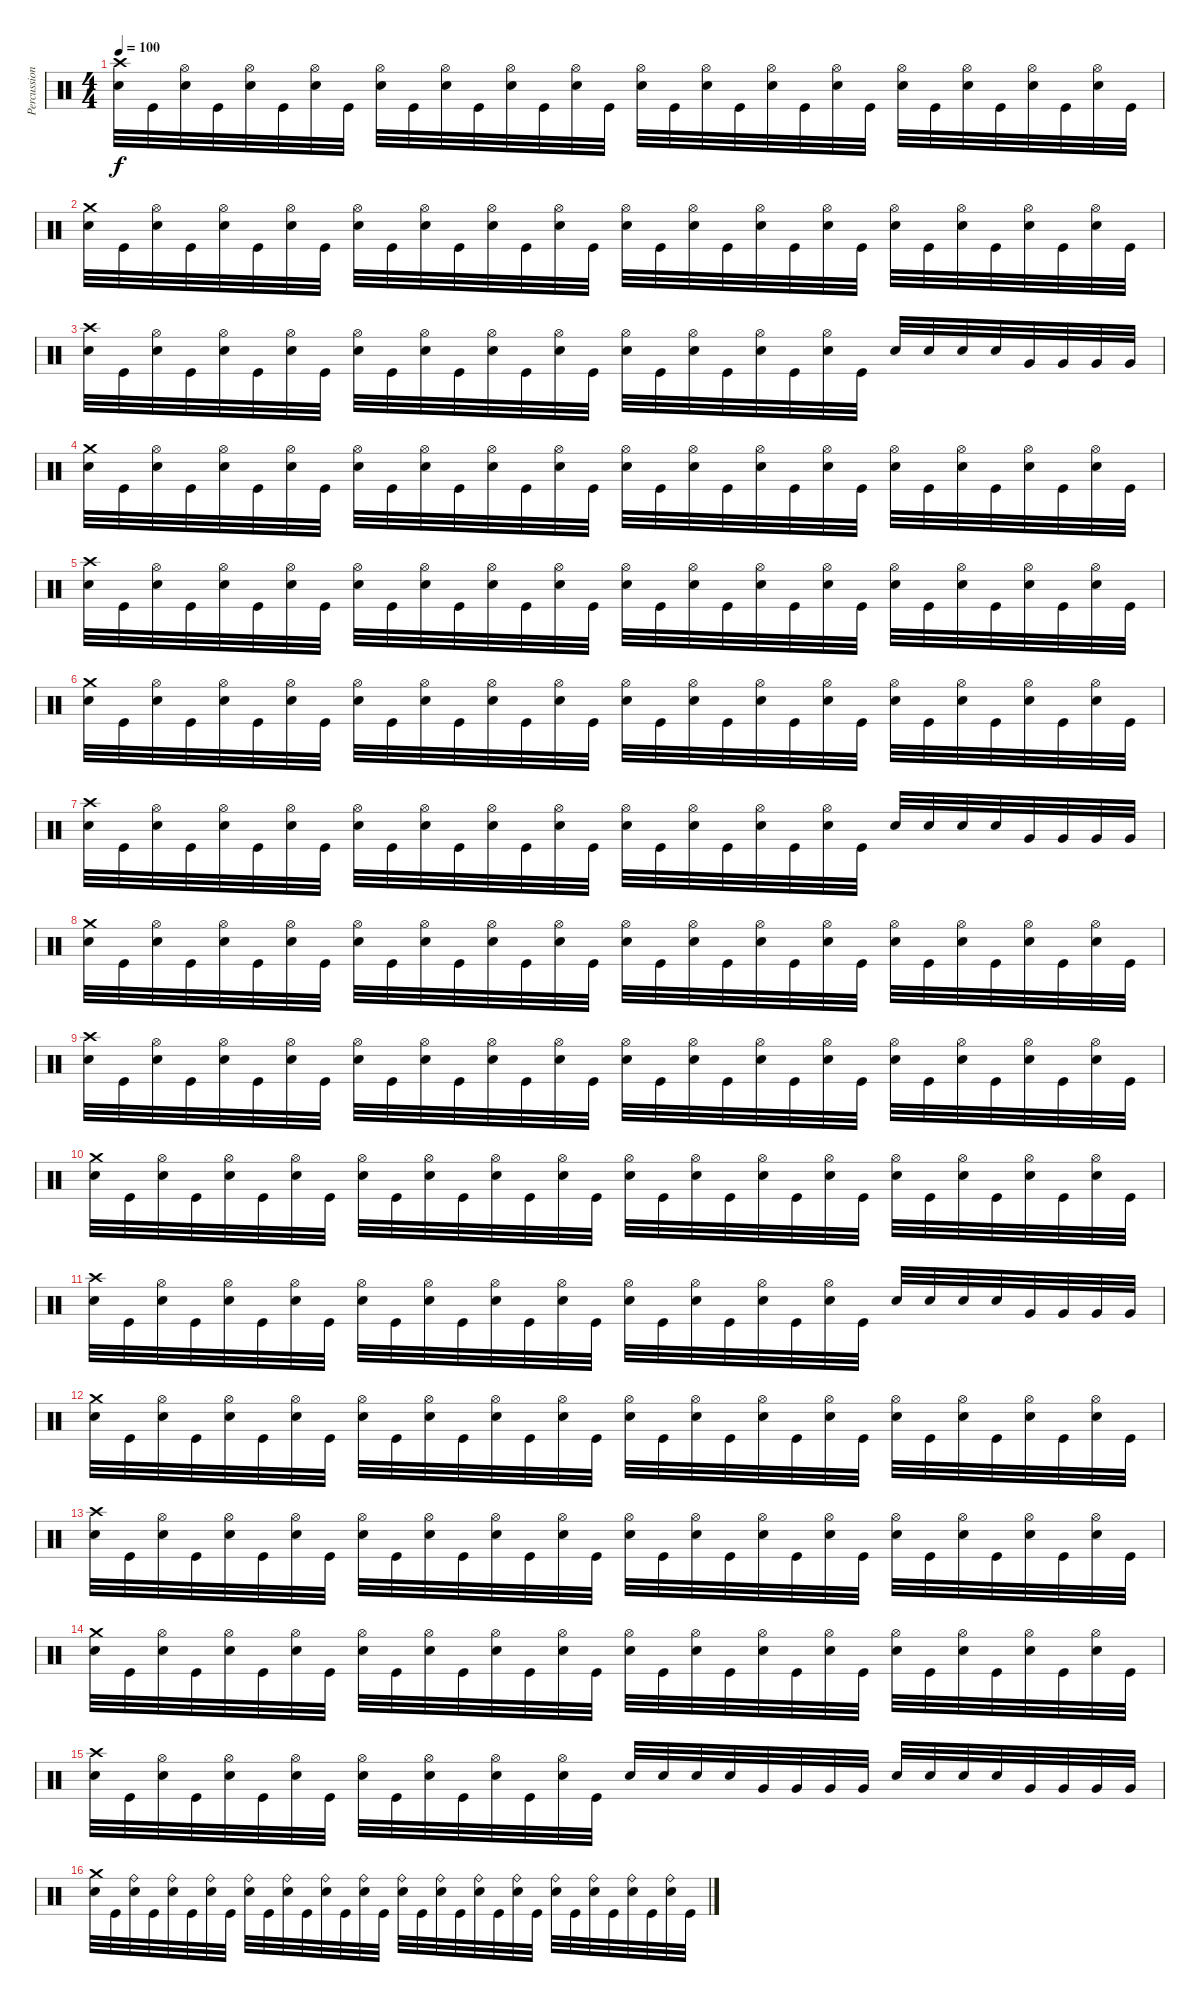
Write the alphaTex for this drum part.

\track ("Percussion" "Percussion") {instrument percussion}
\staff {score}
\articulation defaults
\ts (4 4)
\tempo 100
\clef neutral
\ks c
("Crash high (hit)" "Electric Snare (hit)").32{dy f} "Kick (hit)".32 ("Hi-Hat (open)" "Electric Snare (hit)").32 "Kick (hit)".32 ("Hi-Hat (open)" "Electric Snare (hit)").32 "Kick (hit)".32 ("Hi-Hat (open)" "Electric Snare (hit)").32 "Kick (hit)".32 ("Hi-Hat (open)" "Electric Snare (hit)").32 "Kick (hit)".32 ("Hi-Hat (open)" "Electric Snare (hit)").32 "Kick (hit)".32 ("Hi-Hat (open)" "Electric Snare (hit)").32 "Kick (hit)".32 ("Hi-Hat (open)" "Electric Snare (hit)").32 "Kick (hit)".32 ("Hi-Hat (open)" "Electric Snare (hit)").32 "Kick (hit)".32 ("Hi-Hat (open)" "Electric Snare (hit)").32 "Kick (hit)".32 ("Hi-Hat (open)" "Electric Snare (hit)").32 "Kick (hit)".32 ("Hi-Hat (open)" "Electric Snare (hit)").32 "Kick (hit)".32 ("Hi-Hat (open)" "Electric Snare (hit)").32 "Kick (hit)".32 ("Hi-Hat (open)" "Electric Snare (hit)").32 "Kick (hit)".32 ("Hi-Hat (open)" "Electric Snare (hit)").32 "Kick (hit)".32 ("Hi-Hat (open)" "Electric Snare (hit)").32 "Kick (hit)".32 |
("Crash medium (hit)" "Electric Snare (hit)").32 "Kick (hit)".32 ("Hi-Hat (open)" "Electric Snare (hit)").32 "Kick (hit)".32 ("Hi-Hat (open)" "Electric Snare (hit)").32 "Kick (hit)".32 ("Hi-Hat (open)" "Electric Snare (hit)").32 "Kick (hit)".32 ("Hi-Hat (open)" "Electric Snare (hit)").32 "Kick (hit)".32 ("Hi-Hat (open)" "Electric Snare (hit)").32 "Kick (hit)".32 ("Hi-Hat (open)" "Electric Snare (hit)").32 "Kick (hit)".32 ("Hi-Hat (open)" "Electric Snare (hit)").32 "Kick (hit)".32 ("Hi-Hat (open)" "Electric Snare (hit)").32 "Kick (hit)".32 ("Hi-Hat (open)" "Electric Snare (hit)").32 "Kick (hit)".32 ("Hi-Hat (open)" "Electric Snare (hit)").32 "Kick (hit)".32 ("Hi-Hat (open)" "Electric Snare (hit)").32 "Kick (hit)".32 ("Hi-Hat (open)" "Electric Snare (hit)").32 "Kick (hit)".32 ("Hi-Hat (open)" "Electric Snare (hit)").32 "Kick (hit)".32 ("Hi-Hat (open)" "Electric Snare (hit)").32 "Kick (hit)".32 ("Hi-Hat (open)" "Electric Snare (hit)").32 "Kick (hit)".32 |
("Crash high (hit)" "Electric Snare (hit)").32 "Kick (hit)".32 ("Hi-Hat (open)" "Electric Snare (hit)").32 "Kick (hit)".32 ("Hi-Hat (open)" "Electric Snare (hit)").32 "Kick (hit)".32 ("Hi-Hat (open)" "Electric Snare (hit)").32 "Kick (hit)".32 ("Hi-Hat (open)" "Electric Snare (hit)").32 "Kick (hit)".32 ("Hi-Hat (open)" "Electric Snare (hit)").32 "Kick (hit)".32 ("Hi-Hat (open)" "Electric Snare (hit)").32 "Kick (hit)".32 ("Hi-Hat (open)" "Electric Snare (hit)").32 "Kick (hit)".32 ("Hi-Hat (open)" "Electric Snare (hit)").32 "Kick (hit)".32 ("Hi-Hat (open)" "Electric Snare (hit)").32 "Kick (hit)".32 ("Hi-Hat (open)" "Electric Snare (hit)").32 "Kick (hit)".32 ("Hi-Hat (open)" "Electric Snare (hit)").32 "Kick (hit)".32 "Electric Snare (hit)".32 "Electric Snare (hit)".32 "Electric Snare (hit)".32 "Electric Snare (hit)".32 "Very Low Tom (hit)".32 "Very Low Tom (hit)".32 "Very Low Tom (hit)".32 "Very Low Tom (hit)".32 |
("Crash medium (hit)" "Electric Snare (hit)").32 "Kick (hit)".32 ("Hi-Hat (open)" "Electric Snare (hit)").32 "Kick (hit)".32 ("Hi-Hat (open)" "Electric Snare (hit)").32 "Kick (hit)".32 ("Hi-Hat (open)" "Electric Snare (hit)").32 "Kick (hit)".32 ("Hi-Hat (open)" "Electric Snare (hit)").32 "Kick (hit)".32 ("Hi-Hat (open)" "Electric Snare (hit)").32 "Kick (hit)".32 ("Hi-Hat (open)" "Electric Snare (hit)").32 "Kick (hit)".32 ("Hi-Hat (open)" "Electric Snare (hit)").32 "Kick (hit)".32 ("Hi-Hat (open)" "Electric Snare (hit)").32 "Kick (hit)".32 ("Hi-Hat (open)" "Electric Snare (hit)").32 "Kick (hit)".32 ("Hi-Hat (open)" "Electric Snare (hit)").32 "Kick (hit)".32 ("Hi-Hat (open)" "Electric Snare (hit)").32 "Kick (hit)".32 ("Hi-Hat (open)" "Electric Snare (hit)").32 "Kick (hit)".32 ("Hi-Hat (open)" "Electric Snare (hit)").32 "Kick (hit)".32 ("Hi-Hat (open)" "Electric Snare (hit)").32 "Kick (hit)".32 ("Hi-Hat (open)" "Electric Snare (hit)").32 "Kick (hit)".32 |
("Crash high (hit)" "Electric Snare (hit)").32 "Kick (hit)".32 ("Hi-Hat (open)" "Electric Snare (hit)").32 "Kick (hit)".32 ("Hi-Hat (open)" "Electric Snare (hit)").32 "Kick (hit)".32 ("Hi-Hat (open)" "Electric Snare (hit)").32 "Kick (hit)".32 ("Hi-Hat (open)" "Electric Snare (hit)").32 "Kick (hit)".32 ("Hi-Hat (open)" "Electric Snare (hit)").32 "Kick (hit)".32 ("Hi-Hat (open)" "Electric Snare (hit)").32 "Kick (hit)".32 ("Hi-Hat (open)" "Electric Snare (hit)").32 "Kick (hit)".32 ("Hi-Hat (open)" "Electric Snare (hit)").32 "Kick (hit)".32 ("Hi-Hat (open)" "Electric Snare (hit)").32 "Kick (hit)".32 ("Hi-Hat (open)" "Electric Snare (hit)").32 "Kick (hit)".32 ("Hi-Hat (open)" "Electric Snare (hit)").32 "Kick (hit)".32 ("Hi-Hat (open)" "Electric Snare (hit)").32 "Kick (hit)".32 ("Hi-Hat (open)" "Electric Snare (hit)").32 "Kick (hit)".32 ("Hi-Hat (open)" "Electric Snare (hit)").32 "Kick (hit)".32 ("Hi-Hat (open)" "Electric Snare (hit)").32 "Kick (hit)".32 |
("Crash medium (hit)" "Electric Snare (hit)").32 "Kick (hit)".32 ("Hi-Hat (open)" "Electric Snare (hit)").32 "Kick (hit)".32 ("Hi-Hat (open)" "Electric Snare (hit)").32 "Kick (hit)".32 ("Hi-Hat (open)" "Electric Snare (hit)").32 "Kick (hit)".32 ("Hi-Hat (open)" "Electric Snare (hit)").32 "Kick (hit)".32 ("Hi-Hat (open)" "Electric Snare (hit)").32 "Kick (hit)".32 ("Hi-Hat (open)" "Electric Snare (hit)").32 "Kick (hit)".32 ("Hi-Hat (open)" "Electric Snare (hit)").32 "Kick (hit)".32 ("Hi-Hat (open)" "Electric Snare (hit)").32 "Kick (hit)".32 ("Hi-Hat (open)" "Electric Snare (hit)").32 "Kick (hit)".32 ("Hi-Hat (open)" "Electric Snare (hit)").32 "Kick (hit)".32 ("Hi-Hat (open)" "Electric Snare (hit)").32 "Kick (hit)".32 ("Hi-Hat (open)" "Electric Snare (hit)").32 "Kick (hit)".32 ("Hi-Hat (open)" "Electric Snare (hit)").32 "Kick (hit)".32 ("Hi-Hat (open)" "Electric Snare (hit)").32 "Kick (hit)".32 ("Hi-Hat (open)" "Electric Snare (hit)").32 "Kick (hit)".32 |
("Crash high (hit)" "Electric Snare (hit)").32 "Kick (hit)".32 ("Hi-Hat (open)" "Electric Snare (hit)").32 "Kick (hit)".32 ("Hi-Hat (open)" "Electric Snare (hit)").32 "Kick (hit)".32 ("Hi-Hat (open)" "Electric Snare (hit)").32 "Kick (hit)".32 ("Hi-Hat (open)" "Electric Snare (hit)").32 "Kick (hit)".32 ("Hi-Hat (open)" "Electric Snare (hit)").32 "Kick (hit)".32 ("Hi-Hat (open)" "Electric Snare (hit)").32 "Kick (hit)".32 ("Hi-Hat (open)" "Electric Snare (hit)").32 "Kick (hit)".32 ("Hi-Hat (open)" "Electric Snare (hit)").32 "Kick (hit)".32 ("Hi-Hat (open)" "Electric Snare (hit)").32 "Kick (hit)".32 ("Hi-Hat (open)" "Electric Snare (hit)").32 "Kick (hit)".32 ("Hi-Hat (open)" "Electric Snare (hit)").32 "Kick (hit)".32 "Electric Snare (hit)".32 "Electric Snare (hit)".32 "Electric Snare (hit)".32 "Electric Snare (hit)".32 "Very Low Tom (hit)".32 "Very Low Tom (hit)".32 "Very Low Tom (hit)".32 "Very Low Tom (hit)".32 |
("Crash medium (hit)" "Electric Snare (hit)").32 "Kick (hit)".32 ("Hi-Hat (open)" "Electric Snare (hit)").32 "Kick (hit)".32 ("Hi-Hat (open)" "Electric Snare (hit)").32 "Kick (hit)".32 ("Hi-Hat (open)" "Electric Snare (hit)").32 "Kick (hit)".32 ("Hi-Hat (open)" "Electric Snare (hit)").32 "Kick (hit)".32 ("Hi-Hat (open)" "Electric Snare (hit)").32 "Kick (hit)".32 ("Hi-Hat (open)" "Electric Snare (hit)").32 "Kick (hit)".32 ("Hi-Hat (open)" "Electric Snare (hit)").32 "Kick (hit)".32 ("Hi-Hat (open)" "Electric Snare (hit)").32 "Kick (hit)".32 ("Hi-Hat (open)" "Electric Snare (hit)").32 "Kick (hit)".32 ("Hi-Hat (open)" "Electric Snare (hit)").32 "Kick (hit)".32 ("Hi-Hat (open)" "Electric Snare (hit)").32 "Kick (hit)".32 ("Hi-Hat (open)" "Electric Snare (hit)").32 "Kick (hit)".32 ("Hi-Hat (open)" "Electric Snare (hit)").32 "Kick (hit)".32 ("Hi-Hat (open)" "Electric Snare (hit)").32 "Kick (hit)".32 ("Hi-Hat (open)" "Electric Snare (hit)").32 "Kick (hit)".32 |
("Crash high (hit)" "Electric Snare (hit)").32 "Kick (hit)".32 ("Hi-Hat (open)" "Electric Snare (hit)").32 "Kick (hit)".32 ("Hi-Hat (open)" "Electric Snare (hit)").32 "Kick (hit)".32 ("Hi-Hat (open)" "Electric Snare (hit)").32 "Kick (hit)".32 ("Hi-Hat (open)" "Electric Snare (hit)").32 "Kick (hit)".32 ("Hi-Hat (open)" "Electric Snare (hit)").32 "Kick (hit)".32 ("Hi-Hat (open)" "Electric Snare (hit)").32 "Kick (hit)".32 ("Hi-Hat (open)" "Electric Snare (hit)").32 "Kick (hit)".32 ("Hi-Hat (open)" "Electric Snare (hit)").32 "Kick (hit)".32 ("Hi-Hat (open)" "Electric Snare (hit)").32 "Kick (hit)".32 ("Hi-Hat (open)" "Electric Snare (hit)").32 "Kick (hit)".32 ("Hi-Hat (open)" "Electric Snare (hit)").32 "Kick (hit)".32 ("Hi-Hat (open)" "Electric Snare (hit)").32 "Kick (hit)".32 ("Hi-Hat (open)" "Electric Snare (hit)").32 "Kick (hit)".32 ("Hi-Hat (open)" "Electric Snare (hit)").32 "Kick (hit)".32 ("Hi-Hat (open)" "Electric Snare (hit)").32 "Kick (hit)".32 |
("Crash medium (hit)" "Electric Snare (hit)").32 "Kick (hit)".32 ("Hi-Hat (open)" "Electric Snare (hit)").32 "Kick (hit)".32 ("Hi-Hat (open)" "Electric Snare (hit)").32 "Kick (hit)".32 ("Hi-Hat (open)" "Electric Snare (hit)").32 "Kick (hit)".32 ("Hi-Hat (open)" "Electric Snare (hit)").32 "Kick (hit)".32 ("Hi-Hat (open)" "Electric Snare (hit)").32 "Kick (hit)".32 ("Hi-Hat (open)" "Electric Snare (hit)").32 "Kick (hit)".32 ("Hi-Hat (open)" "Electric Snare (hit)").32 "Kick (hit)".32 ("Hi-Hat (open)" "Electric Snare (hit)").32 "Kick (hit)".32 ("Hi-Hat (open)" "Electric Snare (hit)").32 "Kick (hit)".32 ("Hi-Hat (open)" "Electric Snare (hit)").32 "Kick (hit)".32 ("Hi-Hat (open)" "Electric Snare (hit)").32 "Kick (hit)".32 ("Hi-Hat (open)" "Electric Snare (hit)").32 "Kick (hit)".32 ("Hi-Hat (open)" "Electric Snare (hit)").32 "Kick (hit)".32 ("Hi-Hat (open)" "Electric Snare (hit)").32 "Kick (hit)".32 ("Hi-Hat (open)" "Electric Snare (hit)").32 "Kick (hit)".32 |
("Crash high (hit)" "Electric Snare (hit)").32 "Kick (hit)".32 ("Hi-Hat (open)" "Electric Snare (hit)").32 "Kick (hit)".32 ("Hi-Hat (open)" "Electric Snare (hit)").32 "Kick (hit)".32 ("Hi-Hat (open)" "Electric Snare (hit)").32 "Kick (hit)".32 ("Hi-Hat (open)" "Electric Snare (hit)").32 "Kick (hit)".32 ("Hi-Hat (open)" "Electric Snare (hit)").32 "Kick (hit)".32 ("Hi-Hat (open)" "Electric Snare (hit)").32 "Kick (hit)".32 ("Hi-Hat (open)" "Electric Snare (hit)").32 "Kick (hit)".32 ("Hi-Hat (open)" "Electric Snare (hit)").32 "Kick (hit)".32 ("Hi-Hat (open)" "Electric Snare (hit)").32 "Kick (hit)".32 ("Hi-Hat (open)" "Electric Snare (hit)").32 "Kick (hit)".32 ("Hi-Hat (open)" "Electric Snare (hit)").32 "Kick (hit)".32 "Electric Snare (hit)".32 "Electric Snare (hit)".32 "Electric Snare (hit)".32 "Electric Snare (hit)".32 "Very Low Tom (hit)".32 "Very Low Tom (hit)".32 "Very Low Tom (hit)".32 "Very Low Tom (hit)".32 |
("Crash medium (hit)" "Electric Snare (hit)").32 "Kick (hit)".32 ("Hi-Hat (open)" "Electric Snare (hit)").32 "Kick (hit)".32 ("Hi-Hat (open)" "Electric Snare (hit)").32 "Kick (hit)".32 ("Hi-Hat (open)" "Electric Snare (hit)").32 "Kick (hit)".32 ("Hi-Hat (open)" "Electric Snare (hit)").32 "Kick (hit)".32 ("Hi-Hat (open)" "Electric Snare (hit)").32 "Kick (hit)".32 ("Hi-Hat (open)" "Electric Snare (hit)").32 "Kick (hit)".32 ("Hi-Hat (open)" "Electric Snare (hit)").32 "Kick (hit)".32 ("Hi-Hat (open)" "Electric Snare (hit)").32 "Kick (hit)".32 ("Hi-Hat (open)" "Electric Snare (hit)").32 "Kick (hit)".32 ("Hi-Hat (open)" "Electric Snare (hit)").32 "Kick (hit)".32 ("Hi-Hat (open)" "Electric Snare (hit)").32 "Kick (hit)".32 ("Hi-Hat (open)" "Electric Snare (hit)").32 "Kick (hit)".32 ("Hi-Hat (open)" "Electric Snare (hit)").32 "Kick (hit)".32 ("Hi-Hat (open)" "Electric Snare (hit)").32 "Kick (hit)".32 ("Hi-Hat (open)" "Electric Snare (hit)").32 "Kick (hit)".32 |
("Crash high (hit)" "Electric Snare (hit)").32 "Kick (hit)".32 ("Hi-Hat (open)" "Electric Snare (hit)").32 "Kick (hit)".32 ("Hi-Hat (open)" "Electric Snare (hit)").32 "Kick (hit)".32 ("Hi-Hat (open)" "Electric Snare (hit)").32 "Kick (hit)".32 ("Hi-Hat (open)" "Electric Snare (hit)").32 "Kick (hit)".32 ("Hi-Hat (open)" "Electric Snare (hit)").32 "Kick (hit)".32 ("Hi-Hat (open)" "Electric Snare (hit)").32 "Kick (hit)".32 ("Hi-Hat (open)" "Electric Snare (hit)").32 "Kick (hit)".32 ("Hi-Hat (open)" "Electric Snare (hit)").32 "Kick (hit)".32 ("Hi-Hat (open)" "Electric Snare (hit)").32 "Kick (hit)".32 ("Hi-Hat (open)" "Electric Snare (hit)").32 "Kick (hit)".32 ("Hi-Hat (open)" "Electric Snare (hit)").32 "Kick (hit)".32 ("Hi-Hat (open)" "Electric Snare (hit)").32 "Kick (hit)".32 ("Hi-Hat (open)" "Electric Snare (hit)").32 "Kick (hit)".32 ("Hi-Hat (open)" "Electric Snare (hit)").32 "Kick (hit)".32 ("Hi-Hat (open)" "Electric Snare (hit)").32 "Kick (hit)".32 |
("Crash medium (hit)" "Electric Snare (hit)").32 "Kick (hit)".32 ("Hi-Hat (open)" "Electric Snare (hit)").32 "Kick (hit)".32 ("Hi-Hat (open)" "Electric Snare (hit)").32 "Kick (hit)".32 ("Hi-Hat (open)" "Electric Snare (hit)").32 "Kick (hit)".32 ("Hi-Hat (open)" "Electric Snare (hit)").32 "Kick (hit)".32 ("Hi-Hat (open)" "Electric Snare (hit)").32 "Kick (hit)".32 ("Hi-Hat (open)" "Electric Snare (hit)").32 "Kick (hit)".32 ("Hi-Hat (open)" "Electric Snare (hit)").32 "Kick (hit)".32 ("Hi-Hat (open)" "Electric Snare (hit)").32 "Kick (hit)".32 ("Hi-Hat (open)" "Electric Snare (hit)").32 "Kick (hit)".32 ("Hi-Hat (open)" "Electric Snare (hit)").32 "Kick (hit)".32 ("Hi-Hat (open)" "Electric Snare (hit)").32 "Kick (hit)".32 ("Hi-Hat (open)" "Electric Snare (hit)").32 "Kick (hit)".32 ("Hi-Hat (open)" "Electric Snare (hit)").32 "Kick (hit)".32 ("Hi-Hat (open)" "Electric Snare (hit)").32 "Kick (hit)".32 ("Hi-Hat (open)" "Electric Snare (hit)").32 "Kick (hit)".32 |
("Crash high (hit)" "Electric Snare (hit)").32 "Kick (hit)".32 ("Hi-Hat (open)" "Electric Snare (hit)").32 "Kick (hit)".32 ("Hi-Hat (open)" "Electric Snare (hit)").32 "Kick (hit)".32 ("Hi-Hat (open)" "Electric Snare (hit)").32 "Kick (hit)".32 ("Hi-Hat (open)" "Electric Snare (hit)").32 "Kick (hit)".32 ("Hi-Hat (open)" "Electric Snare (hit)").32 "Kick (hit)".32 ("Hi-Hat (open)" "Electric Snare (hit)").32 "Kick (hit)".32 ("Hi-Hat (open)" "Electric Snare (hit)").32 "Kick (hit)".32 "Electric Snare (hit)".32 "Electric Snare (hit)".32 "Electric Snare (hit)".32 "Electric Snare (hit)".32 "Very Low Tom (hit)".32 "Very Low Tom (hit)".32 "Very Low Tom (hit)".32 "Very Low Tom (hit)".32 "Electric Snare (hit)".32 "Electric Snare (hit)".32 "Electric Snare (hit)".32 "Electric Snare (hit)".32 "Very Low Tom (hit)".32 "Very Low Tom (hit)".32 "Very Low Tom (hit)".32 "Very Low Tom (hit)".32 |
("Crash medium (hit)" "Electric Snare (hit)").32 "Kick (hit)".32 ("Ride (bell)" "Electric Snare (hit)").32 "Kick (hit)".32 ("Ride (bell)" "Electric Snare (hit)").32 "Kick (hit)".32 ("Ride (bell)" "Electric Snare (hit)").32 "Kick (hit)".32 ("Ride (bell)" "Electric Snare (hit)").32 "Kick (hit)".32 ("Ride (bell)" "Electric Snare (hit)").32 "Kick (hit)".32 ("Ride (bell)" "Electric Snare (hit)").32 "Kick (hit)".32 ("Ride (bell)" "Electric Snare (hit)").32 "Kick (hit)".32 ("Ride (bell)" "Electric Snare (hit)").32 "Kick (hit)".32 ("Ride (bell)" "Electric Snare (hit)").32 "Kick (hit)".32 ("Ride (bell)" "Electric Snare (hit)").32 "Kick (hit)".32 ("Ride (bell)" "Electric Snare (hit)").32 "Kick (hit)".32 ("Ride (bell)" "Electric Snare (hit)").32 "Kick (hit)".32 ("Ride (bell)" "Electric Snare (hit)").32 "Kick (hit)".32 ("Ride (bell)" "Electric Snare (hit)").32 "Kick (hit)".32 ("Ride (bell)" "Electric Snare (hit)").32 "Kick (hit)".32
